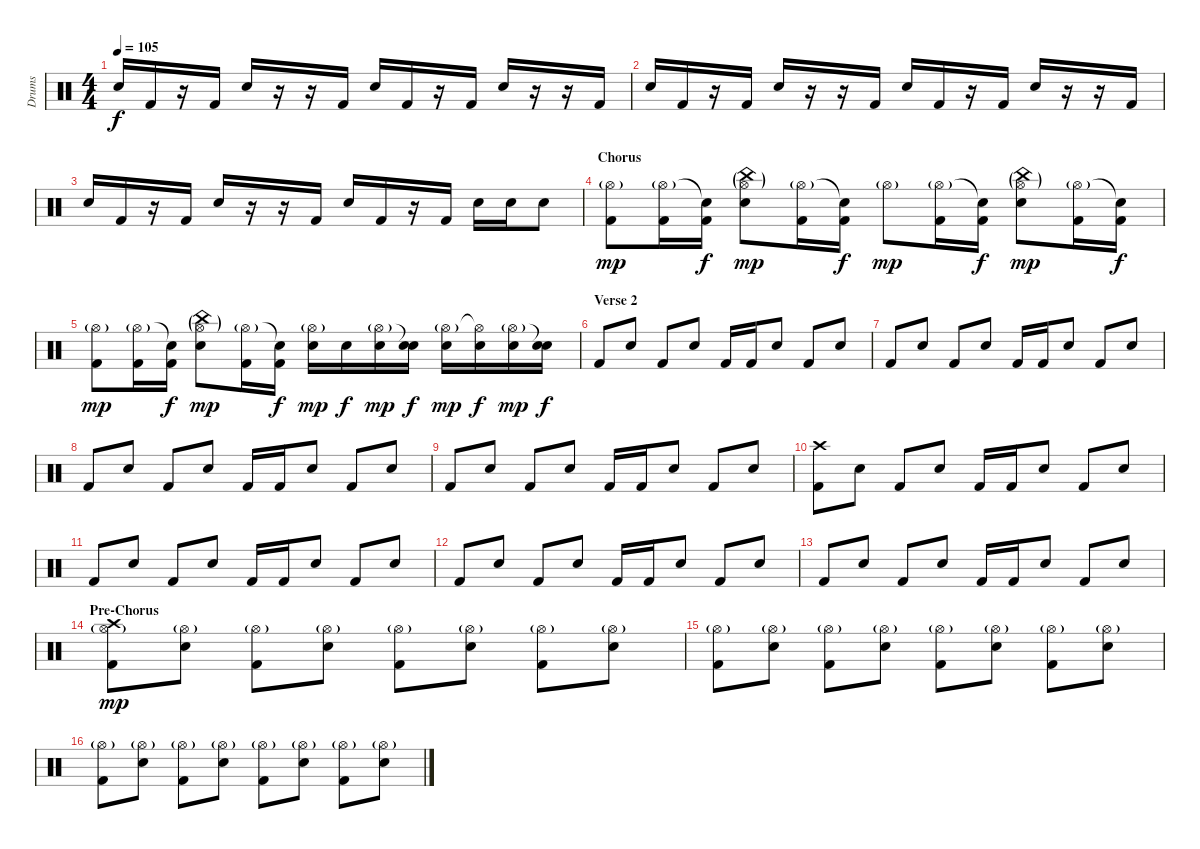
\track ("Drums" "Drums") {instrument percussion}
\staff {score}
\articulation defaults
\ts (4 4)
\tempo 105
\clef neutral
\ks c "Electric Snare (hit)".16{dy f} "Kick (hit) 2".16
r.16 "Kick (hit) 2".16 "Electric Snare (hit)".16 r.16 r.16 "Kick (hit) 2".16 "Electric Snare (hit)".16 "Kick (hit) 2".16 r.16 "Kick (hit) 2".16 "Electric Snare (hit)".16 r.16 r.16 "Kick (hit) 2".16 |
"Electric Snare (hit)".16 "Kick (hit) 2".16 r.16 "Kick (hit) 2".16 "Electric Snare (hit)".16 r.16 r.16 "Kick (hit) 2".16 "Electric Snare (hit)".16 "Kick (hit) 2".16 r.16 "Kick (hit) 2".16 "Electric Snare (hit)".16 r.16 r.16 "Kick (hit) 2".16 |
"Electric Snare (hit)".16 "Kick (hit) 2".16 r.16 "Kick (hit) 2".16 "Electric Snare (hit)".16 r.16 r.16 "Kick (hit) 2".16 "Electric Snare (hit)".16 "Kick (hit) 2".16 r.16 "Kick (hit) 2".16 "Electric Snare (hit)".16 "Electric Snare (hit)".16 "Electric Snare (hit)".8 |
\section ("" "Chorus")
("Hi-Hat (open)"{g} "Kick (hit) 2").8{dy mp} ("Hi-Hat (open)"{g} "Kick (hit) 2").16 ("Snare (hit)"{t} "Kick (hit) 2").16{dy f} ("China (hit)"{g} "Hi-Hat (open)"{g} "Electric Snare (hit)").8{dy mp} ("Hi-Hat (open)"{g} "Kick (hit) 2").16 ("Snare (hit)"{t} "Kick (hit) 2").16{dy f} "Hi-Hat (open)"{g}.8{dy mp} ("Hi-Hat (open)"{g} "Kick (hit) 2").16 ("Snare (hit)"{t} "Kick (hit) 2").16{dy f} ("China (hit)"{g} "Hi-Hat (open)"{g} "Electric Snare (hit)").8{dy mp} ("Hi-Hat (open)"{g} "Kick (hit) 2").16 ("Snare (hit)"{t} "Kick (hit) 2").16{dy f} |
("Hi-Hat (open)"{g} "Kick (hit) 2").8{dy mp} ("Hi-Hat (open)"{g} "Kick (hit) 2").16 ("Snare (hit)"{t} "Kick (hit) 2").16{dy f} ("China (hit)"{g} "Hi-Hat (open)"{g} "Electric Snare (hit)").8{dy mp} ("Hi-Hat (open)"{g} "Kick (hit) 2").16 ("Snare (hit)"{t} "Kick (hit) 2").16{dy f} ("Hi-Hat (open)"{g} "Electric Snare (hit)").16{dy mp} "Electric Snare (hit)".16{dy f} ("Hi-Hat (open)"{g} "Electric Snare (hit)").16{dy mp} ("Snare (hit)"{t} "Electric Snare (hit)").16{dy f} ("Hi-Hat (open)"{g} "Electric Snare (hit)").16{dy mp} ("Hi-Hat (open)"{t} "Electric Snare (hit)").16{dy f} ("Hi-Hat (open)"{g} "Electric Snare (hit)").16{dy mp} ("Snare (hit)"{t} "Electric Snare (hit)").16{dy f} |
\section ("" "Verse 2")
"Kick (hit) 2".8 "Electric Snare (hit)".8 "Kick (hit) 2".8 "Electric Snare (hit)".8 "Kick (hit) 2".16 "Kick (hit) 2".16 "Electric Snare (hit)".8 "Kick (hit) 2".8 "Electric Snare (hit)".8 |
"Kick (hit) 2".8 "Electric Snare (hit)".8 "Kick (hit) 2".8 "Electric Snare (hit)".8 "Kick (hit) 2".16 "Kick (hit) 2".16 "Electric Snare (hit)".8 "Kick (hit) 2".8 "Electric Snare (hit)".8 |
"Kick (hit) 2".8 "Electric Snare (hit)".8 "Kick (hit) 2".8 "Electric Snare (hit)".8 "Kick (hit) 2".16 "Kick (hit) 2".16 "Electric Snare (hit)".8 "Kick (hit) 2".8 "Electric Snare (hit)".8 |
"Kick (hit) 2".8 "Electric Snare (hit)".8 "Kick (hit) 2".8 "Electric Snare (hit)".8 "Kick (hit) 2".16 "Kick (hit) 2".16 "Electric Snare (hit)".8 "Kick (hit) 2".8 "Electric Snare (hit)".8 |
("Crash high (hit)" "Kick (hit) 2").8 "Electric Snare (hit)".8 "Kick (hit) 2".8 "Electric Snare (hit)".8 "Kick (hit) 2".16 "Kick (hit) 2".16 "Electric Snare (hit)".8 "Kick (hit) 2".8 "Electric Snare (hit)".8 |
"Kick (hit) 2".8 "Electric Snare (hit)".8 "Kick (hit) 2".8 "Electric Snare (hit)".8 "Kick (hit) 2".16 "Kick (hit) 2".16 "Electric Snare (hit)".8 "Kick (hit) 2".8 "Electric Snare (hit)".8 |
"Kick (hit) 2".8 "Electric Snare (hit)".8 "Kick (hit) 2".8 "Electric Snare (hit)".8 "Kick (hit) 2".16 "Kick (hit) 2".16 "Electric Snare (hit)".8 "Kick (hit) 2".8 "Electric Snare (hit)".8 |
"Kick (hit) 2".8 "Electric Snare (hit)".8 "Kick (hit) 2".8 "Electric Snare (hit)".8 "Kick (hit) 2".16 "Kick (hit) 2".16 "Electric Snare (hit)".8 "Kick (hit) 2".8 "Electric Snare (hit)".8 |
\section ("" "Pre-Chorus")
("Crash high (hit)" "Hi-Hat (open)"{g} "Kick (hit) 2").8{dy mp} ("Hi-Hat (open)"{g} "Electric Snare (hit)").8 ("Hi-Hat (open)"{g} "Kick (hit) 2").8 ("Hi-Hat (open)"{g} "Electric Snare (hit)").8 ("Hi-Hat (open)"{g} "Kick (hit) 2").8 ("Hi-Hat (open)"{g} "Electric Snare (hit)").8 ("Hi-Hat (open)"{g} "Kick (hit) 2").8 ("Hi-Hat (open)"{g} "Electric Snare (hit)").8 |
("Hi-Hat (open)"{g} "Kick (hit) 2").8 ("Hi-Hat (open)"{g} "Electric Snare (hit)").8 ("Hi-Hat (open)"{g} "Kick (hit) 2").8 ("Hi-Hat (open)"{g} "Electric Snare (hit)").8 ("Hi-Hat (open)"{g} "Kick (hit) 2").8 ("Hi-Hat (open)"{g} "Electric Snare (hit)").8 ("Hi-Hat (open)"{g} "Kick (hit) 2").8 ("Hi-Hat (open)"{g} "Electric Snare (hit)").8 |
("Hi-Hat (open)"{g} "Kick (hit) 2").8 ("Hi-Hat (open)"{g} "Electric Snare (hit)").8 ("Hi-Hat (open)"{g} "Kick (hit) 2").8 ("Hi-Hat (open)"{g} "Electric Snare (hit)").8 ("Hi-Hat (open)"{g} "Kick (hit) 2").8 ("Hi-Hat (open)"{g} "Electric Snare (hit)").8 ("Hi-Hat (open)"{g} "Kick (hit) 2").8 ("Hi-Hat (open)"{g} "Electric Snare (hit)").8
